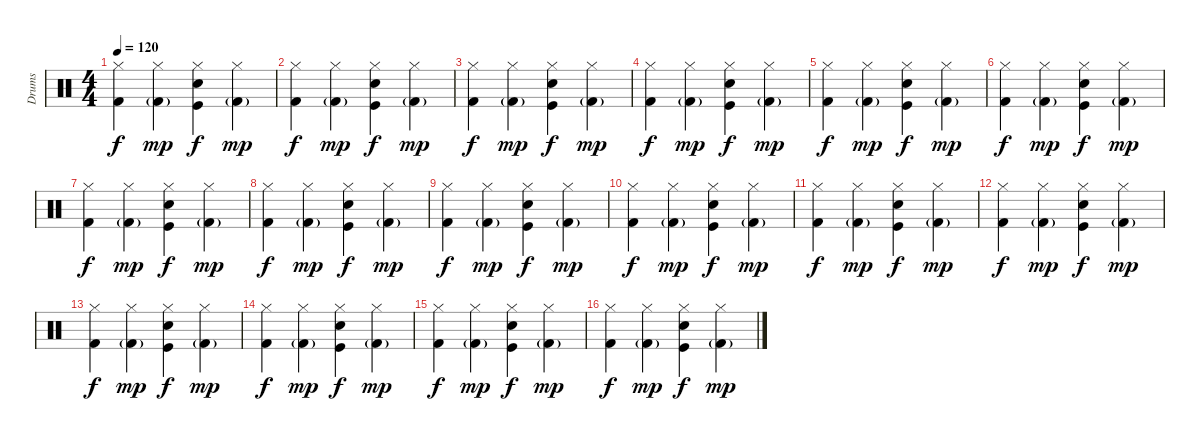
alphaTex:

\track ("Drums" "Drums") {instrument percussion}
\staff {score}
\articulation defaults
\ts (4 4)
\tempo 120
\clef neutral
\ks c
("Kick (hit) 2" "Hi-Hat (closed)").4{dy f} ("Kick (hit) 2"{g} "Hi-Hat (closed)").4{dy mp} ("Kick (hit)" "Snare (hit) 2" "Hi-Hat (closed)").4{dy f} ("Kick (hit) 2"{g} "Hi-Hat (closed)").4{dy mp} |
("Kick (hit) 2" "Hi-Hat (closed)").4{dy f} ("Kick (hit) 2"{g} "Hi-Hat (closed)").4{dy mp} ("Kick (hit)" "Snare (hit) 2" "Hi-Hat (closed)").4{dy f} ("Kick (hit) 2"{g} "Hi-Hat (closed)").4{dy mp} |
("Kick (hit) 2" "Hi-Hat (closed)").4{dy f} ("Kick (hit) 2"{g} "Hi-Hat (closed)").4{dy mp} ("Kick (hit)" "Snare (hit) 2" "Hi-Hat (closed)").4{dy f} ("Kick (hit) 2"{g} "Hi-Hat (closed)").4{dy mp} |
("Kick (hit) 2" "Hi-Hat (closed)").4{dy f} ("Kick (hit) 2"{g} "Hi-Hat (closed)").4{dy mp} ("Kick (hit)" "Snare (hit) 2" "Hi-Hat (closed)").4{dy f} ("Kick (hit) 2"{g} "Hi-Hat (closed)").4{dy mp} |
("Kick (hit) 2" "Hi-Hat (closed)").4{dy f} ("Kick (hit) 2"{g} "Hi-Hat (closed)").4{dy mp} ("Kick (hit)" "Snare (hit) 2" "Hi-Hat (closed)").4{dy f} ("Kick (hit) 2"{g} "Hi-Hat (closed)").4{dy mp} |
("Kick (hit) 2" "Hi-Hat (closed)").4{dy f} ("Kick (hit) 2"{g} "Hi-Hat (closed)").4{dy mp} ("Kick (hit)" "Snare (hit) 2" "Hi-Hat (closed)").4{dy f} ("Kick (hit) 2"{g} "Hi-Hat (closed)").4{dy mp} |
("Kick (hit) 2" "Hi-Hat (closed)").4{dy f} ("Kick (hit) 2"{g} "Hi-Hat (closed)").4{dy mp} ("Kick (hit)" "Snare (hit) 2" "Hi-Hat (closed)").4{dy f} ("Kick (hit) 2"{g} "Hi-Hat (closed)").4{dy mp} |
("Kick (hit) 2" "Hi-Hat (closed)").4{dy f} ("Kick (hit) 2"{g} "Hi-Hat (closed)").4{dy mp} ("Kick (hit)" "Snare (hit) 2" "Hi-Hat (closed)").4{dy f} ("Kick (hit) 2"{g} "Hi-Hat (closed)").4{dy mp} |
("Kick (hit) 2" "Hi-Hat (closed)").4{dy f} ("Kick (hit) 2"{g} "Hi-Hat (closed)").4{dy mp} ("Kick (hit)" "Snare (hit) 2" "Hi-Hat (closed)").4{dy f} ("Kick (hit) 2"{g} "Hi-Hat (closed)").4{dy mp} |
("Kick (hit) 2" "Hi-Hat (closed)").4{dy f} ("Kick (hit) 2"{g} "Hi-Hat (closed)").4{dy mp} ("Kick (hit)" "Snare (hit) 2" "Hi-Hat (closed)").4{dy f} ("Kick (hit) 2"{g} "Hi-Hat (closed)").4{dy mp} |
("Kick (hit) 2" "Hi-Hat (closed)").4{dy f} ("Kick (hit) 2"{g} "Hi-Hat (closed)").4{dy mp} ("Kick (hit)" "Snare (hit) 2" "Hi-Hat (closed)").4{dy f} ("Kick (hit) 2"{g} "Hi-Hat (closed)").4{dy mp} |
("Kick (hit) 2" "Hi-Hat (closed)").4{dy f} ("Kick (hit) 2"{g} "Hi-Hat (closed)").4{dy mp} ("Kick (hit)" "Snare (hit) 2" "Hi-Hat (closed)").4{dy f} ("Kick (hit) 2"{g} "Hi-Hat (closed)").4{dy mp} |
("Kick (hit) 2" "Hi-Hat (closed)").4{dy f} ("Kick (hit) 2"{g} "Hi-Hat (closed)").4{dy mp} ("Kick (hit)" "Snare (hit) 2" "Hi-Hat (closed)").4{dy f} ("Kick (hit) 2"{g} "Hi-Hat (closed)").4{dy mp} |
("Kick (hit) 2" "Hi-Hat (closed)").4{dy f} ("Kick (hit) 2"{g} "Hi-Hat (closed)").4{dy mp} ("Kick (hit)" "Snare (hit) 2" "Hi-Hat (closed)").4{dy f} ("Kick (hit) 2"{g} "Hi-Hat (closed)").4{dy mp} |
("Kick (hit) 2" "Hi-Hat (closed)").4{dy f} ("Kick (hit) 2"{g} "Hi-Hat (closed)").4{dy mp} ("Kick (hit)" "Snare (hit) 2" "Hi-Hat (closed)").4{dy f} ("Kick (hit) 2"{g} "Hi-Hat (closed)").4{dy mp} |
("Kick (hit) 2" "Hi-Hat (closed)").4{dy f} ("Kick (hit) 2"{g} "Hi-Hat (closed)").4{dy mp} ("Kick (hit)" "Snare (hit) 2" "Hi-Hat (closed)").4{dy f} ("Kick (hit) 2"{g} "Hi-Hat (closed)").4{dy mp}
